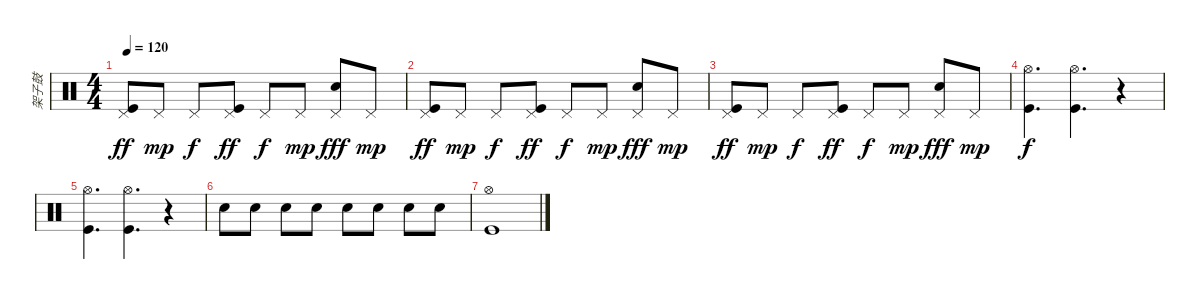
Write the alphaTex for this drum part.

\track ("架子鼓" "架子鼓") {instrument percussion}
\staff {score}
\articulation defaults
\ts (4 4)
\tempo 120
\clef neutral
\ks c
("Pedal Hi-Hat (hit)" "Kick (hit)").8{dy ff} "Pedal Hi-Hat (hit)".8{dy mp} "Pedal Hi-Hat (hit)".8{dy f} ("Pedal Hi-Hat (hit)" "Kick (hit)").8{dy ff} "Pedal Hi-Hat (hit)".8{dy f} "Pedal Hi-Hat (hit)".8{dy mp} ("Pedal Hi-Hat (hit)" "Snare (hit) 2").8{dy fff} "Pedal Hi-Hat (hit)".8{dy mp} |
("Pedal Hi-Hat (hit)" "Kick (hit)").8{dy ff} "Pedal Hi-Hat (hit)".8{dy mp} "Pedal Hi-Hat (hit)".8{dy f} ("Pedal Hi-Hat (hit)" "Kick (hit)").8{dy ff} "Pedal Hi-Hat (hit)".8{dy f} "Pedal Hi-Hat (hit)".8{dy mp} ("Pedal Hi-Hat (hit)" "Snare (hit) 2").8{dy fff} "Pedal Hi-Hat (hit)".8{dy mp} |
("Pedal Hi-Hat (hit)" "Kick (hit)").8{dy ff} "Pedal Hi-Hat (hit)".8{dy mp} "Pedal Hi-Hat (hit)".8{dy f} ("Pedal Hi-Hat (hit)" "Kick (hit)").8{dy ff} "Pedal Hi-Hat (hit)".8{dy f} "Pedal Hi-Hat (hit)".8{dy mp} ("Pedal Hi-Hat (hit)" "Snare (hit) 2").8{dy fff} "Pedal Hi-Hat (hit)".8{dy mp} |
("Kick (hit)" "Hi-Hat (open)").4{d dy f} ("Kick (hit)" "Hi-Hat (open)").4{d} r.4 |
("Kick (hit)" "Hi-Hat (open)").4{d} ("Kick (hit)" "Hi-Hat (open)").4{d} r.4 |
"Snare (hit) 2".8 "Snare (hit) 2".8 "Snare (hit) 2".8 "Snare (hit) 2".8 "Snare (hit) 2".8 "Snare (hit) 2".8 "Snare (hit) 2".8 "Snare (hit) 2".8 |
("Kick (hit)" "Hi-Hat (open)").1
